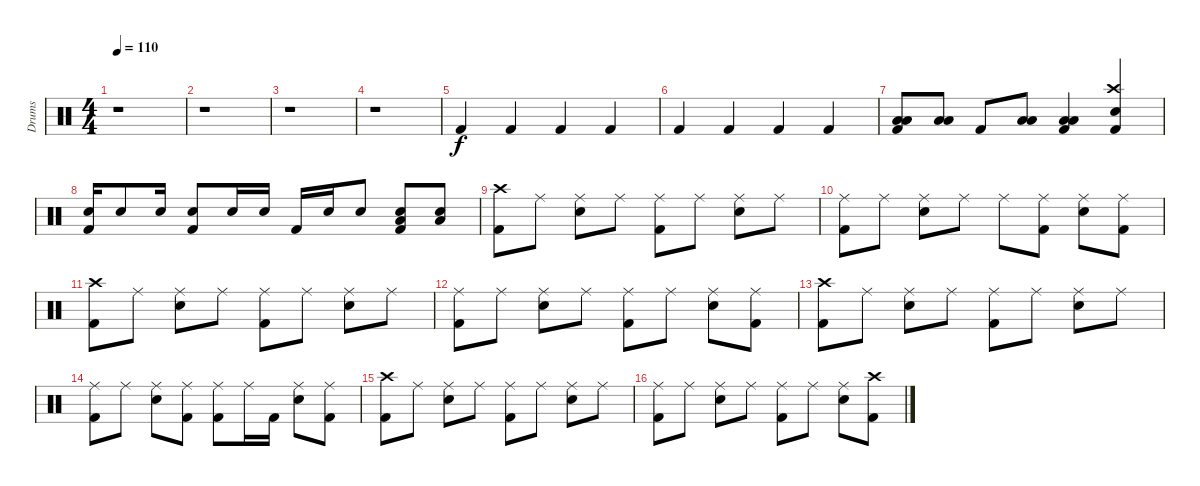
\track ("Drums" "Drums") {instrument percussion}
\staff {score}
\articulation defaults
\ts (4 4)
\tempo 110
\clef neutral
\ks c
r.1{dy f} |
r.1 |
r.1 |
r.1 |
"Kick (hit) 2".4 "Kick (hit) 2".4 "Kick (hit) 2".4 "Kick (hit) 2".4 |
"Kick (hit) 2".4 "Kick (hit) 2".4 "Kick (hit) 2".4 "Kick (hit) 2".4 |
("Low Tom (hit)" "Low Floor Tom (hit)" "Kick (hit) 2").8 ("Low Tom (hit)" "Low Floor Tom (hit)").8 "Kick (hit) 2".8 ("Low Tom (hit)" "Low Floor Tom (hit)").8 ("Low Tom (hit)" "Low Floor Tom (hit)" "Kick (hit) 2").4 ("Crash high (hit)" "Electric Snare (hit)" "Kick (hit) 2").4 |
("Electric Snare (hit)" "Kick (hit) 2").16 "Electric Snare (hit)".8 "Electric Snare (hit)".16 ("Electric Snare (hit)" "Kick (hit) 2").8 "Electric Snare (hit)".16 "Electric Snare (hit)".16 "Kick (hit) 2".16 "Electric Snare (hit)".16 "Electric Snare (hit)".8 ("Low Tom (hit)" "Electric Snare (hit)" "Kick (hit) 2").8 ("Low Tom (hit)" "Electric Snare (hit)").8 |
("Crash high (hit)" "Kick (hit) 2").8 "Ride (middle)".8 ("Ride (middle)" "Electric Snare (hit)").8 "Ride (middle)".8 ("Ride (middle)" "Kick (hit) 2").8 "Ride (middle)".8 ("Ride (middle)" "Electric Snare (hit)").8 "Ride (middle)".8 |
("Ride (middle)" "Kick (hit) 2").8 "Ride (middle)".8 ("Ride (middle)" "Electric Snare (hit)").8 "Ride (middle)".8 "Ride (middle)".8 ("Ride (middle)" "Kick (hit) 2").8 ("Ride (middle)" "Electric Snare (hit)").8 ("Ride (middle)" "Kick (hit) 2").8 |
("Crash high (hit)" "Kick (hit) 2").8 "Ride (middle)".8 ("Ride (middle)" "Electric Snare (hit)").8 "Ride (middle)".8 ("Ride (middle)" "Kick (hit) 2").8 "Ride (middle)".8 ("Ride (middle)" "Electric Snare (hit)").8 "Ride (middle)".8 |
("Ride (middle)" "Kick (hit) 2").8 "Ride (middle)".8 ("Ride (middle)" "Electric Snare (hit)").8 "Ride (middle)".8 ("Ride (middle)" "Kick (hit) 2").8 "Ride (middle)".8 ("Ride (middle)" "Electric Snare (hit)").8 ("Ride (middle)" "Kick (hit) 2").8 |
("Crash high (hit)" "Kick (hit) 2").8 "Ride (middle)".8 ("Ride (middle)" "Electric Snare (hit)").8 "Ride (middle)".8 ("Ride (middle)" "Kick (hit) 2").8 "Ride (middle)".8 ("Ride (middle)" "Electric Snare (hit)").8 "Ride (middle)".8 |
("Ride (middle)" "Kick (hit) 2").8 "Ride (middle)".8 ("Ride (middle)" "Electric Snare (hit)").8 ("Ride (middle)" "Kick (hit) 2").8 ("Ride (middle)" "Kick (hit) 2").8 "Ride (middle)".16 "Kick (hit) 2".16 ("Ride (middle)" "Electric Snare (hit)").8 ("Ride (middle)" "Kick (hit) 2").8 |
("Crash high (hit)" "Kick (hit) 2").8 "Ride (middle)".8 ("Ride (middle)" "Electric Snare (hit)").8 "Ride (middle)".8 ("Ride (middle)" "Kick (hit) 2").8 "Ride (middle)".8 ("Ride (middle)" "Electric Snare (hit)").8 "Ride (middle)".8 |
("Ride (middle)" "Kick (hit) 2").8 "Ride (middle)".8 ("Ride (middle)" "Electric Snare (hit)").8 "Ride (middle)".8 ("Ride (middle)" "Kick (hit) 2").8 "Ride (middle)".8 ("Ride (middle)" "Electric Snare (hit)").8 ("Crash high (hit)" "Kick (hit) 2").8
